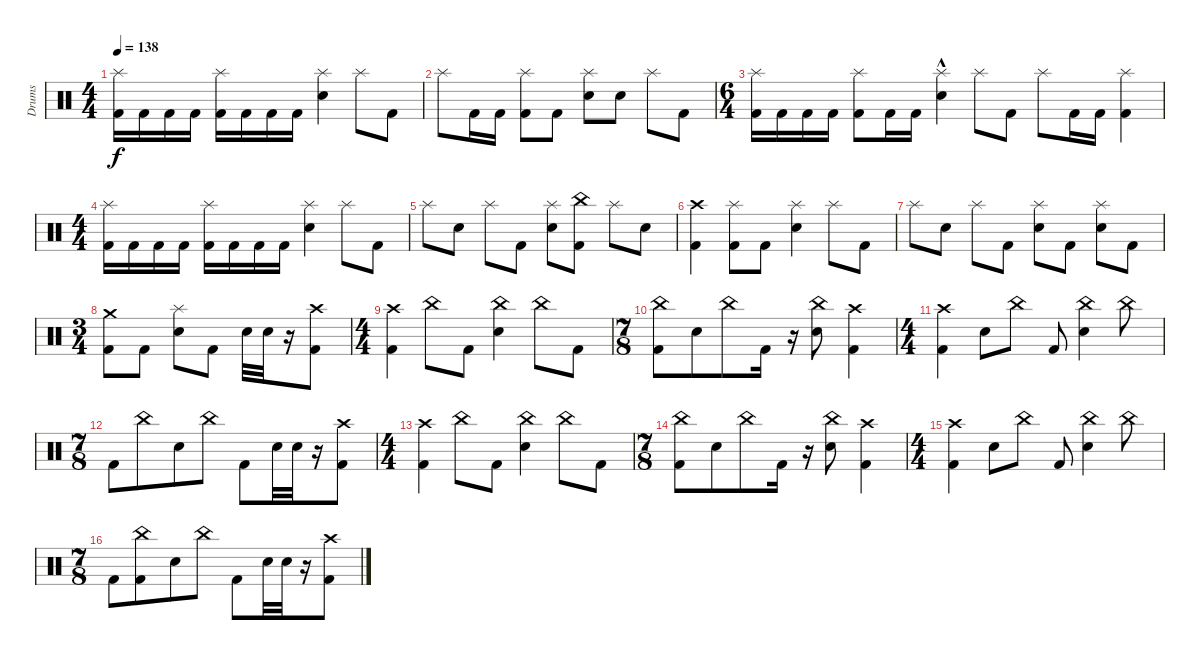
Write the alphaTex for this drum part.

\track ("Drums" "Drums") {instrument percussion}
\staff {score}
\articulation defaults
\ts (4 4)
\tempo 138
\clef neutral
\ks c
("Splash (hit)" "Kick (hit) 2").16{dy f} "Kick (hit) 2".16 "Kick (hit) 2".16 "Kick (hit) 2".16 ("Splash (hit)" "Kick (hit) 2").16 "Kick (hit) 2".16 "Kick (hit) 2".16 "Kick (hit) 2".16 ("Splash (hit)" "Electric Snare (hit)").4 "Splash (hit)".8 "Kick (hit) 2".8 |
"Splash (hit)".8 "Kick (hit) 2".16 "Kick (hit) 2".16 ("Splash (hit)" "Kick (hit) 2").8 "Kick (hit) 2".8 ("Splash (hit)" "Electric Snare (hit)").8 "Electric Snare (hit)".8 "Splash (hit)".8 "Kick (hit) 2".8 |
\ts (6 4)
("Splash (hit)" "Kick (hit) 2").16 "Kick (hit) 2".16 "Kick (hit) 2".16 "Kick (hit) 2".16 ("Kick (hit) 2" "Splash (hit)").8 "Kick (hit) 2".16 "Kick (hit) 2".16 ("Electric Snare (hit)"{hac} "Splash (hit)").4 "Splash (hit)".8 "Kick (hit) 2".8 "Splash (hit)".8 "Kick (hit) 2".16 "Kick (hit) 2".16 ("Splash (hit)" "Kick (hit) 2").4 |
\ts (4 4)
("Splash (hit)" "Kick (hit) 2").16 "Kick (hit) 2".16 "Kick (hit) 2".16 "Kick (hit) 2".16 ("Splash (hit)" "Kick (hit) 2").16 "Kick (hit) 2".16 "Kick (hit) 2".16 "Kick (hit) 2".16 ("Splash (hit)" "Electric Snare (hit)").4 "Splash (hit)".8 "Kick (hit) 2".8 |
"Splash (hit)".8 "Electric Snare (hit)".8 "Splash (hit)".8 "Kick (hit) 2".8 ("Electric Snare (hit)" "Splash (hit)").8 ("Kick (hit) 2" "China (hit)").8 "Splash (hit)".8 "Electric Snare (hit)".8 |
("Crash high (hit)" "Kick (hit) 2").4 ("Splash (hit)" "Kick (hit) 2").8 "Kick (hit) 2".8 ("Splash (hit)" "Electric Snare (hit)").4 "Splash (hit)".8 "Kick (hit) 2".8 |
"Splash (hit)".8 "Electric Snare (hit)".8 "Splash (hit)".8 "Kick (hit) 2".8 ("Splash (hit)" "Electric Snare (hit)").8 "Kick (hit) 2".8 ("Splash (hit)" "Electric Snare (hit)").8 "Kick (hit) 2".8 |
\ts (3 4)
("Kick (hit) 2" "Crash medium (hit)").8 "Kick (hit) 2".8 ("Electric Snare (hit)" "Splash (hit)").8 "Kick (hit) 2".8 "Electric Snare (hit)".32 "Electric Snare (hit)".32 r.16 ("Kick (hit) 2" "Crash high (hit)").8 |
\ts (4 4)
("Kick (hit) 2" "Crash high (hit)").4 "China (hit)".8 "Kick (hit) 2".8 ("Electric Snare (hit)" "China (hit)").4 "China (hit)".8 "Kick (hit) 2".8 |
\ts (7 8)
("Kick (hit) 2" "China (hit)").8 "Electric Snare (hit)".8 "China (hit)".8 "Kick (hit) 2".16 r.16 ("Electric Snare (hit)" "China (hit)").8 ("Kick (hit) 2" "Crash high (hit)").4 |
\ts (4 4)
("Crash high (hit)" "Kick (hit) 2").4 "Electric Snare (hit)".8 "China (hit)".8 "Kick (hit) 2".8 ("China (hit)" "Electric Snare (hit)").4 "China (hit)".8 |
\ts (7 8)
"Kick (hit) 2".8 "China (hit)".8 "Electric Snare (hit)".8 "China (hit)".8 "Kick (hit) 2".8 "Electric Snare (hit)".32 "Electric Snare (hit)".32 r.16 ("Kick (hit) 2" "Crash high (hit)").8 |
\ts (4 4)
("Crash high (hit)" "Kick (hit) 2").4 "China (hit)".8 "Kick (hit) 2".8 ("Electric Snare (hit)" "China (hit)").4 "China (hit)".8 "Kick (hit) 2".8 |
\ts (7 8)
("Kick (hit) 2" "China (hit)").8 "Electric Snare (hit)".8 "China (hit)".8 "Kick (hit) 2".16 r.16 ("Electric Snare (hit)" "China (hit)").8 ("Kick (hit) 2" "Crash high (hit)").4 |
\ts (4 4)
("Crash high (hit)" "Kick (hit) 2").4 "Electric Snare (hit)".8 "China (hit)".8 "Kick (hit) 2".8 ("China (hit)" "Electric Snare (hit)").4 "China (hit)".8 |
\ts (7 8)
"Kick (hit) 2".8 ("China (hit)" "Kick (hit) 2").8 "Electric Snare (hit)".8 "China (hit)".8 "Kick (hit) 2".8 "Electric Snare (hit)".32 "Electric Snare (hit)".32 r.16 ("Kick (hit) 2" "Crash high (hit)").8
